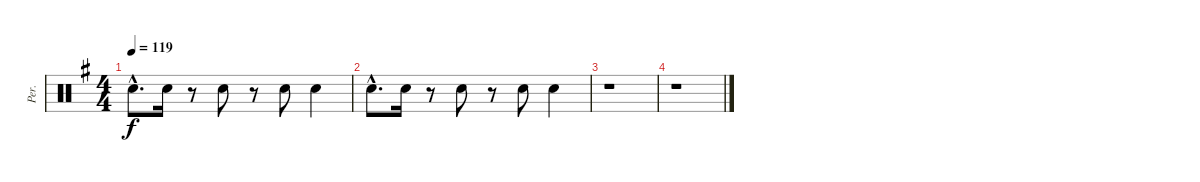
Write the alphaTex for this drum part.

\track ("Per." "Per.") {instrument percussion}
\staff {score}
\articulation defaults
\ts (4 4)
\tempo 119
\clef neutral
\ks eminor "Hand Clap (hit)"{hac}.8{d dy f} "Hand Clap (hit)".16
r.8 "Hand Clap (hit)".8 r.8 "Hand Clap (hit)".8 "Hand Clap (hit)".4 |
"Hand Clap (hit)"{hac}.8{d} "Hand Clap (hit)".16 r.8 "Hand Clap (hit)".8 r.8 "Hand Clap (hit)".8 "Hand Clap (hit)".4 |
r.1 |
r.1
